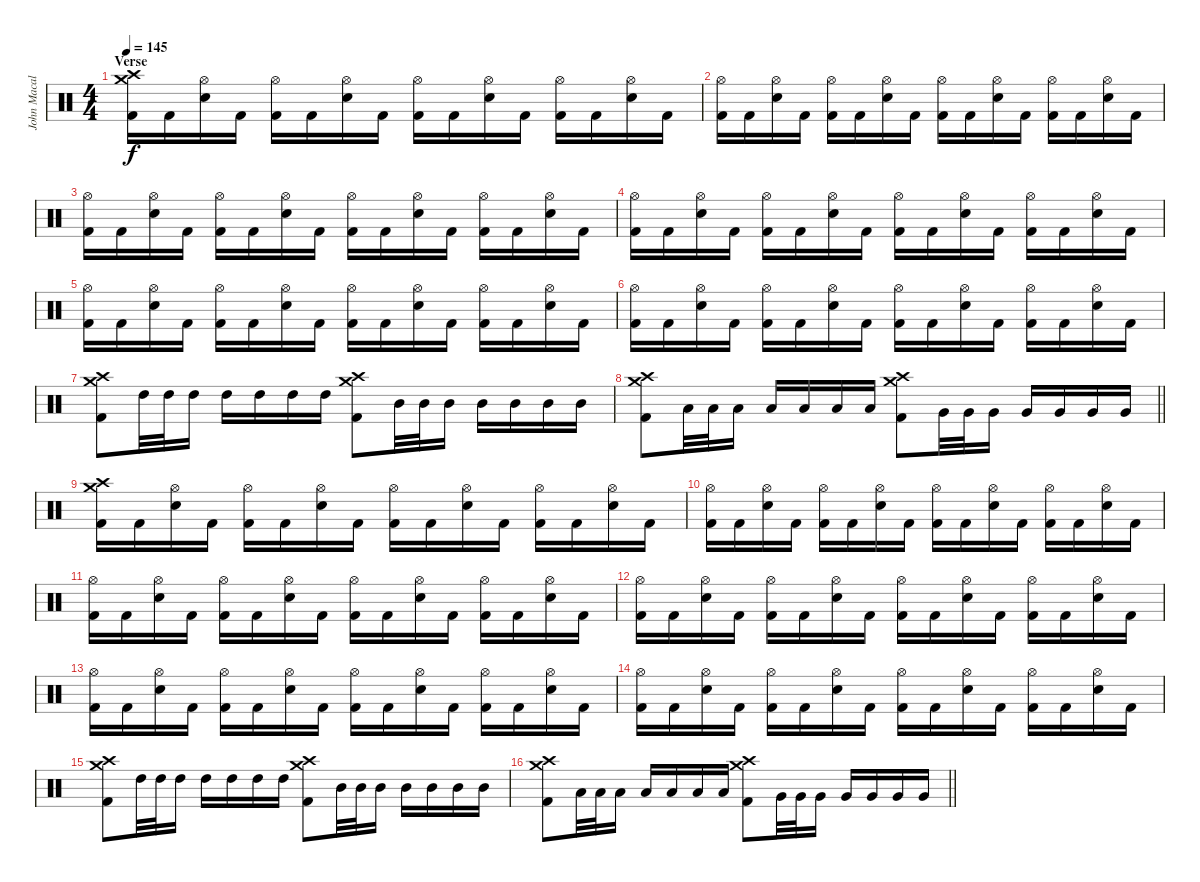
\track ("John Macaluso" "John Macal") {instrument percussion}
\staff {score}
\articulation defaults
\ts (4 4)
\section ("" "Verse")
\tempo 145
\clef neutral
\ks c
("Crash high (hit)" "Crash medium (hit)" "Kick (hit) 2").16{dy f} "Kick (hit) 2".16 ("Hi-Hat (open)" "Snare (hit) 2").16 "Kick (hit) 2".16 ("Hi-Hat (open)" "Kick (hit) 2").16 "Kick (hit) 2".16 ("Hi-Hat (open)" "Snare (hit) 2").16 "Kick (hit) 2".16 ("Hi-Hat (open)" "Kick (hit) 2").16 "Kick (hit) 2".16 ("Hi-Hat (open)" "Snare (hit) 2").16 "Kick (hit) 2".16 ("Hi-Hat (open)" "Kick (hit) 2").16 "Kick (hit) 2".16 ("Hi-Hat (open)" "Snare (hit) 2").16 "Kick (hit) 2".16 |
("Hi-Hat (open)" "Kick (hit) 2").16 "Kick (hit) 2".16 ("Hi-Hat (open)" "Snare (hit) 2").16 "Kick (hit) 2".16 ("Hi-Hat (open)" "Kick (hit) 2").16 "Kick (hit) 2".16 ("Hi-Hat (open)" "Snare (hit) 2").16 "Kick (hit) 2".16 ("Hi-Hat (open)" "Kick (hit) 2").16 "Kick (hit) 2".16 ("Hi-Hat (open)" "Snare (hit) 2").16 "Kick (hit) 2".16 ("Hi-Hat (open)" "Kick (hit) 2").16 "Kick (hit) 2".16 ("Hi-Hat (open)" "Snare (hit) 2").16 "Kick (hit) 2".16 |
("Hi-Hat (open)" "Kick (hit) 2").16 "Kick (hit) 2".16 ("Hi-Hat (open)" "Snare (hit) 2").16 "Kick (hit) 2".16 ("Hi-Hat (open)" "Kick (hit) 2").16 "Kick (hit) 2".16 ("Hi-Hat (open)" "Snare (hit) 2").16 "Kick (hit) 2".16 ("Hi-Hat (open)" "Kick (hit) 2").16 "Kick (hit) 2".16 ("Hi-Hat (open)" "Snare (hit) 2").16 "Kick (hit) 2".16 ("Hi-Hat (open)" "Kick (hit) 2").16 "Kick (hit) 2".16 ("Hi-Hat (open)" "Snare (hit) 2").16 "Kick (hit) 2".16 |
("Hi-Hat (open)" "Kick (hit) 2").16 "Kick (hit) 2".16 ("Hi-Hat (open)" "Snare (hit) 2").16 "Kick (hit) 2".16 ("Hi-Hat (open)" "Kick (hit) 2").16 "Kick (hit) 2".16 ("Hi-Hat (open)" "Snare (hit) 2").16 "Kick (hit) 2".16 ("Hi-Hat (open)" "Kick (hit) 2").16 "Kick (hit) 2".16 ("Hi-Hat (open)" "Snare (hit) 2").16 "Kick (hit) 2".16 ("Hi-Hat (open)" "Kick (hit) 2").16 "Kick (hit) 2".16 ("Hi-Hat (open)" "Snare (hit) 2").16 "Kick (hit) 2".16 |
("Hi-Hat (open)" "Kick (hit) 2").16 "Kick (hit) 2".16 ("Hi-Hat (open)" "Snare (hit) 2").16 "Kick (hit) 2".16 ("Hi-Hat (open)" "Kick (hit) 2").16 "Kick (hit) 2".16 ("Hi-Hat (open)" "Snare (hit) 2").16 "Kick (hit) 2".16 ("Hi-Hat (open)" "Kick (hit) 2").16 "Kick (hit) 2".16 ("Hi-Hat (open)" "Snare (hit) 2").16 "Kick (hit) 2".16 ("Hi-Hat (open)" "Kick (hit) 2").16 "Kick (hit) 2".16 ("Hi-Hat (open)" "Snare (hit) 2").16 "Kick (hit) 2".16 |
("Hi-Hat (open)" "Kick (hit) 2").16 "Kick (hit) 2".16 ("Hi-Hat (open)" "Snare (hit) 2").16 "Kick (hit) 2".16 ("Hi-Hat (open)" "Kick (hit) 2").16 "Kick (hit) 2".16 ("Hi-Hat (open)" "Snare (hit) 2").16 "Kick (hit) 2".16 ("Hi-Hat (open)" "Kick (hit) 2").16 "Kick (hit) 2".16 ("Hi-Hat (open)" "Snare (hit) 2").16 "Kick (hit) 2".16 ("Hi-Hat (open)" "Kick (hit) 2").16 "Kick (hit) 2".16 ("Hi-Hat (open)" "Snare (hit) 2").16 "Kick (hit) 2".16 |
("Crash medium (hit)" "Crash high (hit)" "Kick (hit) 2").8 "High Tom (hit)".32 "High Tom (hit)".32 "High Tom (hit)".16 "High Tom (hit)".16 "High Tom (hit)".16 "High Tom (hit)".16 "High Tom (hit)".16 ("Crash medium (hit)" "Crash high (hit)" "Kick (hit) 2").8 "Mid Tom (hit)".32 "Mid Tom (hit)".32 "Mid Tom (hit)".16 "Mid Tom (hit)".16 "Mid Tom (hit)".16 "Mid Tom (hit)".16 "Mid Tom (hit)".16 |
\barLineRight lightlight
("Crash medium (hit)" "Crash high (hit)" "Kick (hit) 2").8 "Low Tom (hit)".32 "Low Tom (hit)".32 "Low Tom (hit)".16 "Low Tom (hit)".16 "Low Tom (hit)".16 "Low Tom (hit)".16 "Low Tom (hit)".16 ("Crash medium (hit)" "Crash high (hit)" "Kick (hit) 2").8 "Very Low Tom (hit)".32 "Very Low Tom (hit)".32 "Very Low Tom (hit)".16 "Very Low Tom (hit)".16 "Very Low Tom (hit)".16 "Very Low Tom (hit)".16 "Very Low Tom (hit)".16 |
("Crash high (hit)" "Crash medium (hit)" "Kick (hit) 2").16 "Kick (hit) 2".16 ("Hi-Hat (open)" "Snare (hit) 2").16 "Kick (hit) 2".16 ("Hi-Hat (open)" "Kick (hit) 2").16 "Kick (hit) 2".16 ("Hi-Hat (open)" "Snare (hit) 2").16 "Kick (hit) 2".16 ("Hi-Hat (open)" "Kick (hit) 2").16 "Kick (hit) 2".16 ("Hi-Hat (open)" "Snare (hit) 2").16 "Kick (hit) 2".16 ("Hi-Hat (open)" "Kick (hit) 2").16 "Kick (hit) 2".16 ("Hi-Hat (open)" "Snare (hit) 2").16 "Kick (hit) 2".16 |
("Hi-Hat (open)" "Kick (hit) 2").16 "Kick (hit) 2".16 ("Hi-Hat (open)" "Snare (hit) 2").16 "Kick (hit) 2".16 ("Hi-Hat (open)" "Kick (hit) 2").16 "Kick (hit) 2".16 ("Hi-Hat (open)" "Snare (hit) 2").16 "Kick (hit) 2".16 ("Hi-Hat (open)" "Kick (hit) 2").16 "Kick (hit) 2".16 ("Hi-Hat (open)" "Snare (hit) 2").16 "Kick (hit) 2".16 ("Hi-Hat (open)" "Kick (hit) 2").16 "Kick (hit) 2".16 ("Hi-Hat (open)" "Snare (hit) 2").16 "Kick (hit) 2".16 |
("Hi-Hat (open)" "Kick (hit) 2").16 "Kick (hit) 2".16 ("Hi-Hat (open)" "Snare (hit) 2").16 "Kick (hit) 2".16 ("Hi-Hat (open)" "Kick (hit) 2").16 "Kick (hit) 2".16 ("Hi-Hat (open)" "Snare (hit) 2").16 "Kick (hit) 2".16 ("Hi-Hat (open)" "Kick (hit) 2").16 "Kick (hit) 2".16 ("Hi-Hat (open)" "Snare (hit) 2").16 "Kick (hit) 2".16 ("Hi-Hat (open)" "Kick (hit) 2").16 "Kick (hit) 2".16 ("Hi-Hat (open)" "Snare (hit) 2").16 "Kick (hit) 2".16 |
("Hi-Hat (open)" "Kick (hit) 2").16 "Kick (hit) 2".16 ("Hi-Hat (open)" "Snare (hit) 2").16 "Kick (hit) 2".16 ("Hi-Hat (open)" "Kick (hit) 2").16 "Kick (hit) 2".16 ("Hi-Hat (open)" "Snare (hit) 2").16 "Kick (hit) 2".16 ("Hi-Hat (open)" "Kick (hit) 2").16 "Kick (hit) 2".16 ("Hi-Hat (open)" "Snare (hit) 2").16 "Kick (hit) 2".16 ("Hi-Hat (open)" "Kick (hit) 2").16 "Kick (hit) 2".16 ("Hi-Hat (open)" "Snare (hit) 2").16 "Kick (hit) 2".16 |
("Hi-Hat (open)" "Kick (hit) 2").16 "Kick (hit) 2".16 ("Hi-Hat (open)" "Snare (hit) 2").16 "Kick (hit) 2".16 ("Hi-Hat (open)" "Kick (hit) 2").16 "Kick (hit) 2".16 ("Hi-Hat (open)" "Snare (hit) 2").16 "Kick (hit) 2".16 ("Hi-Hat (open)" "Kick (hit) 2").16 "Kick (hit) 2".16 ("Hi-Hat (open)" "Snare (hit) 2").16 "Kick (hit) 2".16 ("Hi-Hat (open)" "Kick (hit) 2").16 "Kick (hit) 2".16 ("Hi-Hat (open)" "Snare (hit) 2").16 "Kick (hit) 2".16 |
("Hi-Hat (open)" "Kick (hit) 2").16 "Kick (hit) 2".16 ("Hi-Hat (open)" "Snare (hit) 2").16 "Kick (hit) 2".16 ("Hi-Hat (open)" "Kick (hit) 2").16 "Kick (hit) 2".16 ("Hi-Hat (open)" "Snare (hit) 2").16 "Kick (hit) 2".16 ("Hi-Hat (open)" "Kick (hit) 2").16 "Kick (hit) 2".16 ("Hi-Hat (open)" "Snare (hit) 2").16 "Kick (hit) 2".16 ("Hi-Hat (open)" "Kick (hit) 2").16 "Kick (hit) 2".16 ("Hi-Hat (open)" "Snare (hit) 2").16 "Kick (hit) 2".16 |
("Crash medium (hit)" "Crash high (hit)" "Kick (hit) 2").8 "High Tom (hit)".32 "High Tom (hit)".32 "High Tom (hit)".16 "High Tom (hit)".16 "High Tom (hit)".16 "High Tom (hit)".16 "High Tom (hit)".16 ("Crash medium (hit)" "Crash high (hit)" "Kick (hit) 2").8 "Mid Tom (hit)".32 "Mid Tom (hit)".32 "Mid Tom (hit)".16 "Mid Tom (hit)".16 "Mid Tom (hit)".16 "Mid Tom (hit)".16 "Mid Tom (hit)".16 |
\barLineRight lightlight
("Crash medium (hit)" "Crash high (hit)" "Kick (hit) 2").8 "Low Tom (hit)".32 "Low Tom (hit)".32 "Low Tom (hit)".16 "Low Tom (hit)".16 "Low Tom (hit)".16 "Low Tom (hit)".16 "Low Tom (hit)".16 ("Crash medium (hit)" "Crash high (hit)" "Kick (hit) 2").8 "Very Low Tom (hit)".32 "Very Low Tom (hit)".32 "Very Low Tom (hit)".16 "Very Low Tom (hit)".16 "Very Low Tom (hit)".16 "Very Low Tom (hit)".16 "Very Low Tom (hit)".16
